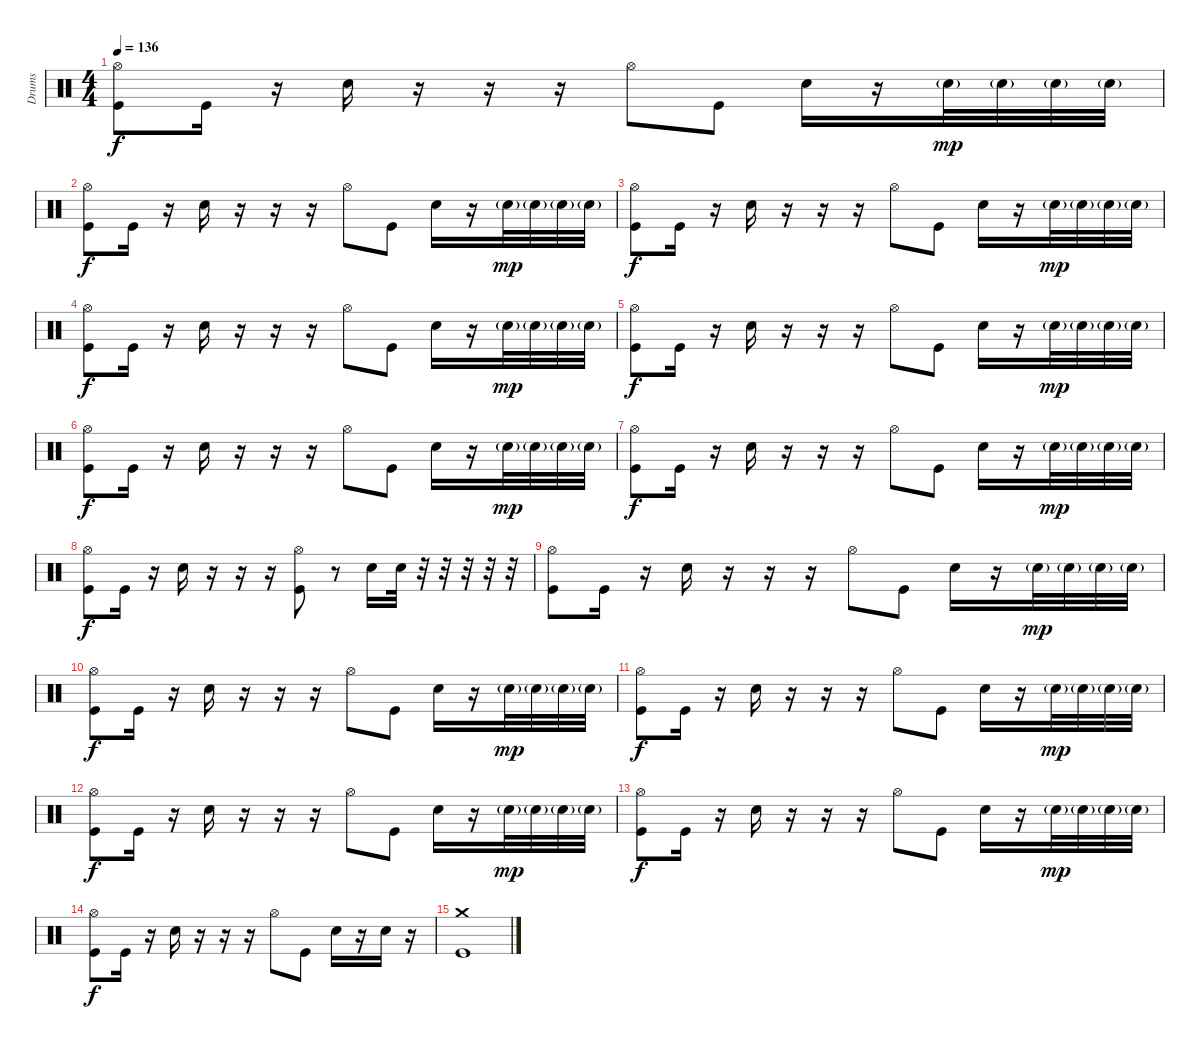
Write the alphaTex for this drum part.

\track ("Drums" "Drums") {instrument percussion}
\staff {score}
\articulation defaults
\ts (4 4)
\tempo 136
\clef neutral
\ks c
("Hi-Hat (open)" "Kick (hit)").8{dy f} "Kick (hit)".16 r.16 "Electric Snare (hit)".16 r.16 r.16 r.16 "Hi-Hat (open)".8 "Kick (hit)".8 "Electric Snare (hit)".16 r.16 "Electric Snare (hit)"{g}.32{dy mp} "Electric Snare (hit)"{g}.32 "Electric Snare (hit)"{g}.32 "Electric Snare (hit)"{g}.32 |
("Hi-Hat (open)" "Kick (hit)").8{dy f} "Kick (hit)".16 r.16 "Electric Snare (hit)".16 r.16 r.16 r.16 "Hi-Hat (open)".8 "Kick (hit)".8 "Electric Snare (hit)".16 r.16 "Electric Snare (hit)"{g}.32{dy mp} "Electric Snare (hit)"{g}.32 "Electric Snare (hit)"{g}.32 "Electric Snare (hit)"{g}.32 |
("Hi-Hat (open)" "Kick (hit)").8{dy f} "Kick (hit)".16 r.16 "Electric Snare (hit)".16 r.16 r.16 r.16 "Hi-Hat (open)".8 "Kick (hit)".8 "Electric Snare (hit)".16 r.16 "Electric Snare (hit)"{g}.32{dy mp} "Electric Snare (hit)"{g}.32 "Electric Snare (hit)"{g}.32 "Electric Snare (hit)"{g}.32 |
("Hi-Hat (open)" "Kick (hit)").8{dy f} "Kick (hit)".16 r.16 "Electric Snare (hit)".16 r.16 r.16 r.16 "Hi-Hat (open)".8 "Kick (hit)".8 "Electric Snare (hit)".16 r.16 "Electric Snare (hit)"{g}.32{dy mp} "Electric Snare (hit)"{g}.32 "Electric Snare (hit)"{g}.32 "Electric Snare (hit)"{g}.32 |
("Hi-Hat (open)" "Kick (hit)").8{dy f} "Kick (hit)".16 r.16 "Electric Snare (hit)".16 r.16 r.16 r.16 "Hi-Hat (open)".8 "Kick (hit)".8 "Electric Snare (hit)".16 r.16 "Electric Snare (hit)"{g}.32{dy mp} "Electric Snare (hit)"{g}.32 "Electric Snare (hit)"{g}.32 "Electric Snare (hit)"{g}.32 |
("Hi-Hat (open)" "Kick (hit)").8{dy f} "Kick (hit)".16 r.16 "Electric Snare (hit)".16 r.16 r.16 r.16 "Hi-Hat (open)".8 "Kick (hit)".8 "Electric Snare (hit)".16 r.16 "Electric Snare (hit)"{g}.32{dy mp} "Electric Snare (hit)"{g}.32 "Electric Snare (hit)"{g}.32 "Electric Snare (hit)"{g}.32 |
("Hi-Hat (open)" "Kick (hit)").8{dy f} "Kick (hit)".16 r.16 "Electric Snare (hit)".16 r.16 r.16 r.16 "Hi-Hat (open)".8 "Kick (hit)".8 "Electric Snare (hit)".16 r.16 "Electric Snare (hit)"{g}.32{dy mp} "Electric Snare (hit)"{g}.32 "Electric Snare (hit)"{g}.32 "Electric Snare (hit)"{g}.32 |
("Hi-Hat (open)" "Kick (hit)").8{dy f} "Kick (hit)".16 r.16 "Electric Snare (hit)".16 r.16 r.16 r.16 ("Hi-Hat (open)" "Kick (hit)").8 r.8 "Electric Snare (hit)".16 "Electric Snare (hit)".32 r.32 r.32 r.32 r.32 r.32 |
("Hi-Hat (open)" "Kick (hit)").8 "Kick (hit)".16 r.16 "Electric Snare (hit)".16 r.16 r.16 r.16 "Hi-Hat (open)".8 "Kick (hit)".8 "Electric Snare (hit)".16 r.16 "Electric Snare (hit)"{g}.32{dy mp} "Electric Snare (hit)"{g}.32 "Electric Snare (hit)"{g}.32 "Electric Snare (hit)"{g}.32 |
("Hi-Hat (open)" "Kick (hit)").8{dy f} "Kick (hit)".16 r.16 "Electric Snare (hit)".16 r.16 r.16 r.16 "Hi-Hat (open)".8 "Kick (hit)".8 "Electric Snare (hit)".16 r.16 "Electric Snare (hit)"{g}.32{dy mp} "Electric Snare (hit)"{g}.32 "Electric Snare (hit)"{g}.32 "Electric Snare (hit)"{g}.32 |
("Hi-Hat (open)" "Kick (hit)").8{dy f} "Kick (hit)".16 r.16 "Electric Snare (hit)".16 r.16 r.16 r.16 "Hi-Hat (open)".8 "Kick (hit)".8 "Electric Snare (hit)".16 r.16 "Electric Snare (hit)"{g}.32{dy mp} "Electric Snare (hit)"{g}.32 "Electric Snare (hit)"{g}.32 "Electric Snare (hit)"{g}.32 |
("Hi-Hat (open)" "Kick (hit)").8{dy f} "Kick (hit)".16 r.16 "Electric Snare (hit)".16 r.16 r.16 r.16 "Hi-Hat (open)".8 "Kick (hit)".8 "Electric Snare (hit)".16 r.16 "Electric Snare (hit)"{g}.32{dy mp} "Electric Snare (hit)"{g}.32 "Electric Snare (hit)"{g}.32 "Electric Snare (hit)"{g}.32 |
("Hi-Hat (open)" "Kick (hit)").8{dy f} "Kick (hit)".16 r.16 "Electric Snare (hit)".16 r.16 r.16 r.16 "Hi-Hat (open)".8 "Kick (hit)".8 "Electric Snare (hit)".16 r.16 "Electric Snare (hit)"{g}.32{dy mp} "Electric Snare (hit)"{g}.32 "Electric Snare (hit)"{g}.32 "Electric Snare (hit)"{g}.32 |
("Hi-Hat (open)" "Kick (hit)").8{dy f} "Kick (hit)".16 r.16 "Electric Snare (hit)".16 r.16 r.16 r.16 "Hi-Hat (open)".8 "Kick (hit)".8 "Electric Snare (hit)".16 r.16 "Electric Snare (hit)".16 r.16 |
("Crash medium (hit)" "Kick (hit)").1
